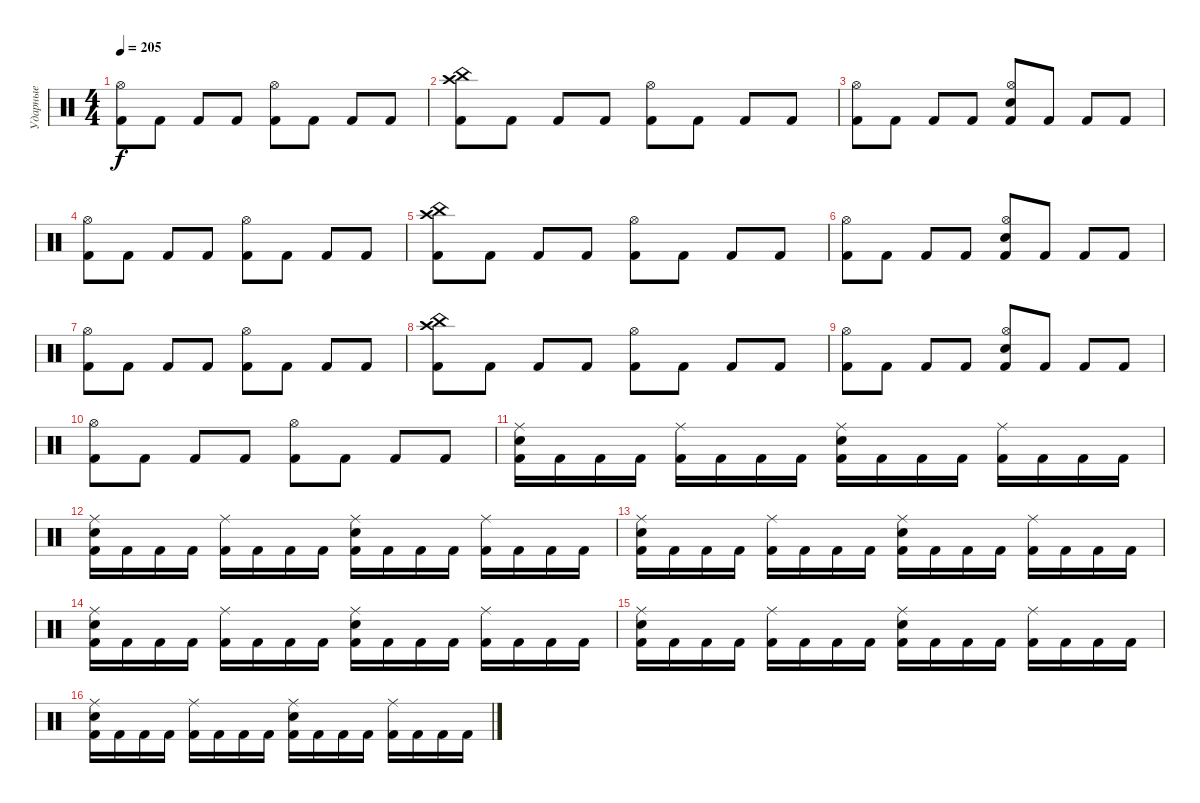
\track ("Ударные" "Ударные") {instrument percussion}
\staff {score}
\articulation defaults
\ts (4 4)
\tempo 205
\clef neutral
\ks c
("Kick (hit) 2" "Hi-Hat (open)").8{dy f} "Kick (hit) 2".8 "Kick (hit) 2".8 "Kick (hit) 2".8 ("Kick (hit) 2" "Hi-Hat (open)").8 "Kick (hit) 2".8 "Kick (hit) 2".8 "Kick (hit) 2".8 |
("Kick (hit) 2" "Crash high (hit)" "China (hit)").8 "Kick (hit) 2".8 "Kick (hit) 2".8 "Kick (hit) 2".8 ("Kick (hit) 2" "Hi-Hat (open)").8 "Kick (hit) 2".8 "Kick (hit) 2".8 "Kick (hit) 2".8 |
("Kick (hit) 2" "Hi-Hat (open)").8 "Kick (hit) 2".8 "Kick (hit) 2".8 "Kick (hit) 2".8 ("Kick (hit) 2" "Electric Snare (hit)" "Hi-Hat (open)").8 "Kick (hit) 2".8 "Kick (hit) 2".8 "Kick (hit) 2".8 |
("Kick (hit) 2" "Hi-Hat (open)").8 "Kick (hit) 2".8 "Kick (hit) 2".8 "Kick (hit) 2".8 ("Kick (hit) 2" "Hi-Hat (open)").8 "Kick (hit) 2".8 "Kick (hit) 2".8 "Kick (hit) 2".8 |
("Kick (hit) 2" "Crash high (hit)" "China (hit)").8 "Kick (hit) 2".8 "Kick (hit) 2".8 "Kick (hit) 2".8 ("Kick (hit) 2" "Hi-Hat (open)").8 "Kick (hit) 2".8 "Kick (hit) 2".8 "Kick (hit) 2".8 |
("Kick (hit) 2" "Hi-Hat (open)").8 "Kick (hit) 2".8 "Kick (hit) 2".8 "Kick (hit) 2".8 ("Kick (hit) 2" "Electric Snare (hit)" "Hi-Hat (open)").8 "Kick (hit) 2".8 "Kick (hit) 2".8 "Kick (hit) 2".8 |
("Kick (hit) 2" "Hi-Hat (open)").8 "Kick (hit) 2".8 "Kick (hit) 2".8 "Kick (hit) 2".8 ("Kick (hit) 2" "Hi-Hat (open)").8 "Kick (hit) 2".8 "Kick (hit) 2".8 "Kick (hit) 2".8 |
("Kick (hit) 2" "Crash high (hit)" "China (hit)").8 "Kick (hit) 2".8 "Kick (hit) 2".8 "Kick (hit) 2".8 ("Kick (hit) 2" "Hi-Hat (open)").8 "Kick (hit) 2".8 "Kick (hit) 2".8 "Kick (hit) 2".8 |
("Kick (hit) 2" "Hi-Hat (open)").8 "Kick (hit) 2".8 "Kick (hit) 2".8 "Kick (hit) 2".8 ("Kick (hit) 2" "Electric Snare (hit)" "Hi-Hat (open)").8 "Kick (hit) 2".8 "Kick (hit) 2".8 "Kick (hit) 2".8 |
("Kick (hit) 2" "Hi-Hat (open)").8 "Kick (hit) 2".8 "Kick (hit) 2".8 "Kick (hit) 2".8 ("Kick (hit) 2" "Hi-Hat (open)").8 "Kick (hit) 2".8 "Kick (hit) 2".8 "Kick (hit) 2".8 |
("Electric Snare (hit)" "Ride (middle)" "Kick (hit) 2").16 "Kick (hit) 2".16 "Kick (hit) 2".16 "Kick (hit) 2".16 ("Kick (hit) 2" "Ride (middle)").16 "Kick (hit) 2".16 "Kick (hit) 2".16 "Kick (hit) 2".16 ("Electric Snare (hit)" "Ride (middle)" "Kick (hit) 2").16 "Kick (hit) 2".16 "Kick (hit) 2".16 "Kick (hit) 2".16 ("Kick (hit) 2" "Ride (middle)").16 "Kick (hit) 2".16 "Kick (hit) 2".16 "Kick (hit) 2".16 |
("Electric Snare (hit)" "Ride (middle)" "Kick (hit) 2").16 "Kick (hit) 2".16 "Kick (hit) 2".16 "Kick (hit) 2".16 ("Kick (hit) 2" "Ride (middle)").16 "Kick (hit) 2".16 "Kick (hit) 2".16 "Kick (hit) 2".16 ("Electric Snare (hit)" "Ride (middle)" "Kick (hit) 2").16 "Kick (hit) 2".16 "Kick (hit) 2".16 "Kick (hit) 2".16 ("Kick (hit) 2" "Ride (middle)").16 "Kick (hit) 2".16 "Kick (hit) 2".16 "Kick (hit) 2".16 |
("Electric Snare (hit)" "Ride (middle)" "Kick (hit) 2").16 "Kick (hit) 2".16 "Kick (hit) 2".16 "Kick (hit) 2".16 ("Kick (hit) 2" "Ride (middle)").16 "Kick (hit) 2".16 "Kick (hit) 2".16 "Kick (hit) 2".16 ("Electric Snare (hit)" "Ride (middle)" "Kick (hit) 2").16 "Kick (hit) 2".16 "Kick (hit) 2".16 "Kick (hit) 2".16 ("Kick (hit) 2" "Ride (middle)").16 "Kick (hit) 2".16 "Kick (hit) 2".16 "Kick (hit) 2".16 |
("Electric Snare (hit)" "Ride (middle)" "Kick (hit) 2").16 "Kick (hit) 2".16 "Kick (hit) 2".16 "Kick (hit) 2".16 ("Kick (hit) 2" "Ride (middle)").16 "Kick (hit) 2".16 "Kick (hit) 2".16 "Kick (hit) 2".16 ("Electric Snare (hit)" "Ride (middle)" "Kick (hit) 2").16 "Kick (hit) 2".16 "Kick (hit) 2".16 "Kick (hit) 2".16 ("Kick (hit) 2" "Ride (middle)").16 "Kick (hit) 2".16 "Kick (hit) 2".16 "Kick (hit) 2".16 |
("Electric Snare (hit)" "Ride (middle)" "Kick (hit) 2").16 "Kick (hit) 2".16 "Kick (hit) 2".16 "Kick (hit) 2".16 ("Kick (hit) 2" "Ride (middle)").16 "Kick (hit) 2".16 "Kick (hit) 2".16 "Kick (hit) 2".16 ("Electric Snare (hit)" "Ride (middle)" "Kick (hit) 2").16 "Kick (hit) 2".16 "Kick (hit) 2".16 "Kick (hit) 2".16 ("Kick (hit) 2" "Ride (middle)").16 "Kick (hit) 2".16 "Kick (hit) 2".16 "Kick (hit) 2".16 |
("Electric Snare (hit)" "Ride (middle)" "Kick (hit) 2").16 "Kick (hit) 2".16 "Kick (hit) 2".16 "Kick (hit) 2".16 ("Kick (hit) 2" "Ride (middle)").16 "Kick (hit) 2".16 "Kick (hit) 2".16 "Kick (hit) 2".16 ("Electric Snare (hit)" "Ride (middle)" "Kick (hit) 2").16 "Kick (hit) 2".16 "Kick (hit) 2".16 "Kick (hit) 2".16 ("Kick (hit) 2" "Ride (middle)").16 "Kick (hit) 2".16 "Kick (hit) 2".16 "Kick (hit) 2".16
